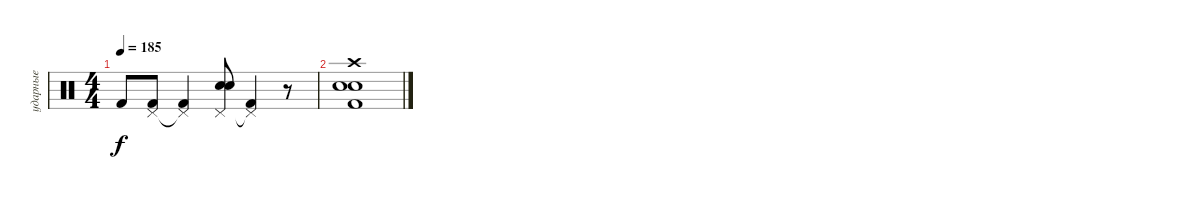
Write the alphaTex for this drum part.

\track ("ударные" "ударные") {instrument percussion}
\staff {score}
\articulation defaults
\ts (4 4)
\tempo 185
\clef neutral
\ks c "Kick (hit) 2".8{dy f}
("Pedal Hi-Hat (hit)" "Kick (hit) 2").8 ("Pedal Hi-Hat (hit)"{t} "Kick (hit) 2").4 ("Pedal Hi-Hat (hit)" "Electric Snare (hit)" "Snare (hit) 2").8 ("Pedal Hi-Hat (hit)"{t} "Kick (hit) 2").4 r.8 |
("Crash high (hit)" "Electric Snare (hit)" "Snare (hit) 2" "Kick (hit) 2").1
